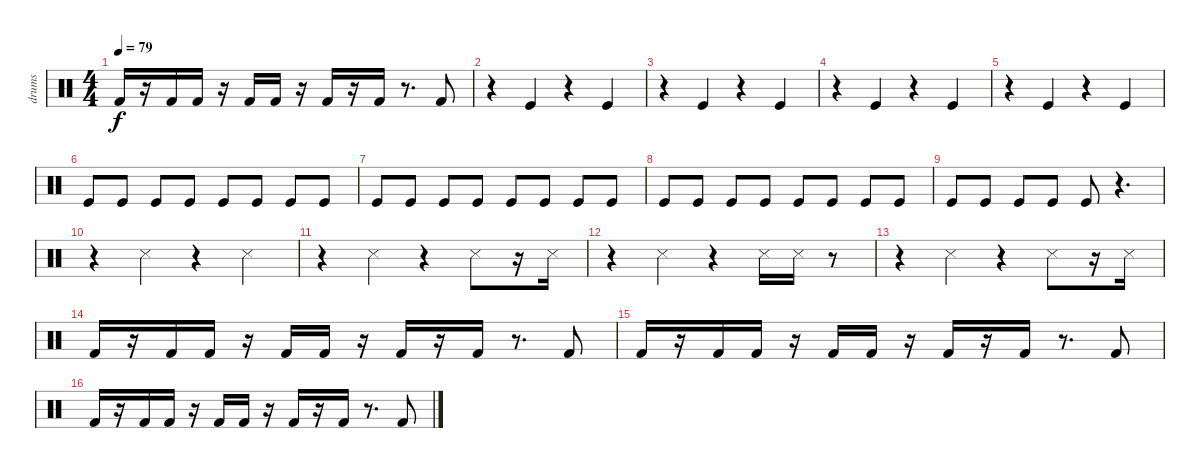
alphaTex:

\track ("drums" "drums") {instrument percussion}
\staff {score}
\articulation defaults
\ts (4 4)
\tempo 79
\clef neutral
\ks c "Kick (hit) 2".16{dy f}
r.16 "Kick (hit) 2".16 "Kick (hit) 2".16 r.16 "Kick (hit) 2".16 "Kick (hit) 2".16 r.16 "Kick (hit) 2".16 r.16 "Kick (hit) 2".16 r.8{d} "Kick (hit) 2".8 |
r.4 "Kick (hit)".4 r.4 "Kick (hit)".4 |
r.4 "Kick (hit)".4 r.4 "Kick (hit)".4 |
r.4 "Kick (hit)".4 r.4 "Kick (hit)".4 |
r.4 "Kick (hit)".4 r.4 "Kick (hit)".4 |
"Kick (hit)".8 "Kick (hit)".8 "Kick (hit)".8 "Kick (hit)".8 "Kick (hit)".8 "Kick (hit)".8 "Kick (hit)".8 "Kick (hit)".8 |
"Kick (hit)".8 "Kick (hit)".8 "Kick (hit)".8 "Kick (hit)".8 "Kick (hit)".8 "Kick (hit)".8 "Kick (hit)".8 "Kick (hit)".8 |
"Kick (hit)".8 "Kick (hit)".8 "Kick (hit)".8 "Kick (hit)".8 "Kick (hit)".8 "Kick (hit)".8 "Kick (hit)".8 "Kick (hit)".8 |
"Kick (hit)".8 "Kick (hit)".8 "Kick (hit)".8 "Kick (hit)".8 "Kick (hit)".8 r.4{d} |
r.4 "Snare (side stick) 3".4 r.4 "Snare (side stick) 3".4 |
r.4 "Snare (side stick) 3".4 r.4 "Snare (side stick) 3".8 r.16 "Snare (side stick) 3".16 |
r.4 "Snare (side stick) 3".4 r.4 "Snare (side stick) 3".16 "Snare (side stick) 3".16 r.8 |
r.4 "Snare (side stick) 3".4 r.4 "Snare (side stick) 3".8 r.16 "Snare (side stick) 3".16 |
"Kick (hit) 2".16 r.16 "Kick (hit) 2".16 "Kick (hit) 2".16 r.16 "Kick (hit) 2".16 "Kick (hit) 2".16 r.16 "Kick (hit) 2".16 r.16 "Kick (hit) 2".16 r.8{d} "Kick (hit) 2".8 |
"Kick (hit) 2".16 r.16 "Kick (hit) 2".16 "Kick (hit) 2".16 r.16 "Kick (hit) 2".16 "Kick (hit) 2".16 r.16 "Kick (hit) 2".16 r.16 "Kick (hit) 2".16 r.8{d} "Kick (hit) 2".8 |
"Kick (hit) 2".16 r.16 "Kick (hit) 2".16 "Kick (hit) 2".16 r.16 "Kick (hit) 2".16 "Kick (hit) 2".16 r.16 "Kick (hit) 2".16 r.16 "Kick (hit) 2".16 r.8{d} "Kick (hit) 2".8
